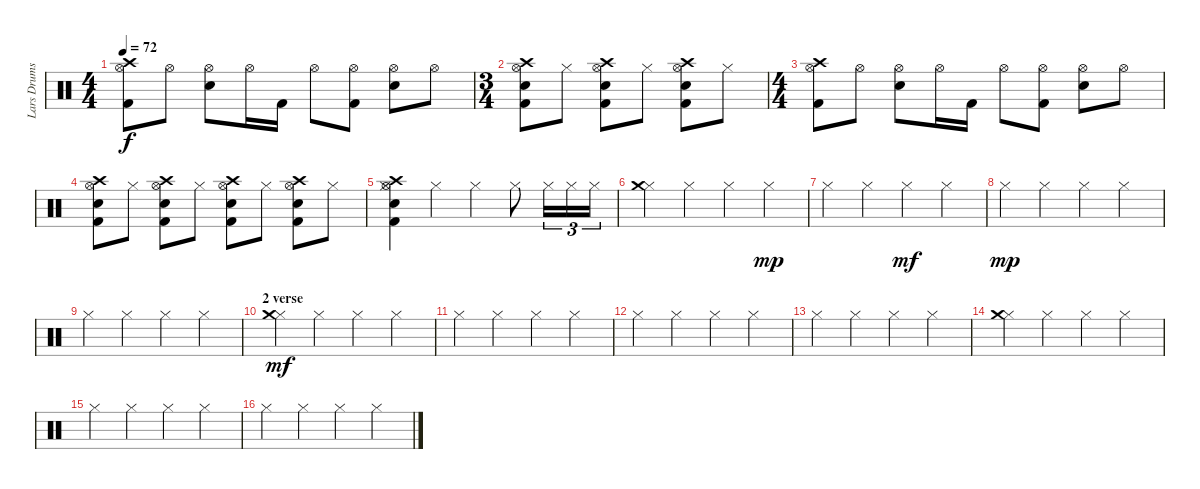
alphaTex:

\track ("Lars Drums" "Lars Drums") {instrument percussion}
\staff {score}
\articulation defaults
\ts (4 4)
\tempo 72
\clef neutral
\ks c
("Kick (hit) 2" "Hi-Hat (open)" "Crash high (hit)").8{dy f} "Hi-Hat (open)".8 ("Snare (hit) 2" "Hi-Hat (open)").8 "Hi-Hat (open)".16 "Kick (hit) 2".16 "Hi-Hat (open)".8 ("Kick (hit) 2" "Hi-Hat (open)").8 ("Snare (hit) 2" "Hi-Hat (open)").8 "Hi-Hat (open)".8 |
\ts (3 4)
("Kick (hit) 2" "Snare (hit) 2" "Hi-Hat (open)" "Crash high (hit)").8 "Hi-Hat (closed)".8 ("Kick (hit) 2" "Snare (hit) 2" "Hi-Hat (open)" "Crash high (hit)").8 "Hi-Hat (closed)".8 ("Kick (hit) 2" "Snare (hit) 2" "Hi-Hat (open)" "Crash high (hit)").8 "Hi-Hat (closed)".8 |
\ts (4 4)
("Kick (hit) 2" "Hi-Hat (open)" "Crash high (hit)").8 "Hi-Hat (open)".8 ("Snare (hit) 2" "Hi-Hat (open)").8 "Hi-Hat (open)".16 "Kick (hit) 2".16 "Hi-Hat (open)".8 ("Kick (hit) 2" "Hi-Hat (open)").8 ("Snare (hit) 2" "Hi-Hat (open)").8 "Hi-Hat (open)".8 |
("Kick (hit) 2" "Snare (hit) 2" "Hi-Hat (open)" "Crash high (hit)").8 "Hi-Hat (closed)".8 ("Kick (hit) 2" "Snare (hit) 2" "Hi-Hat (open)" "Crash high (hit)").8 "Hi-Hat (closed)".8 ("Kick (hit) 2" "Snare (hit) 2" "Hi-Hat (open)" "Crash high (hit)").8 "Hi-Hat (closed)".8 ("Kick (hit) 2" "Snare (hit) 2" "Hi-Hat (open)" "Crash high (hit)").8 "Hi-Hat (closed)".8 |
("Kick (hit) 2" "Snare (hit) 2" "Hi-Hat (closed)" "Hi-Hat (open)" "Crash high (hit)").4 "Hi-Hat (closed)".4 "Hi-Hat (closed)".4 "Hi-Hat (closed)".8 "Hi-Hat (closed)".16{tu (3 2)} "Hi-Hat (closed)".16{tu (3 2)} "Hi-Hat (closed)".16{tu (3 2)} |
("Hi-Hat (closed)" "Crash medium (hit)").4 "Hi-Hat (closed)".4 "Hi-Hat (closed)".4 "Hi-Hat (closed)".4{dy mp} |
"Hi-Hat (closed)".4 "Hi-Hat (closed)".4 "Hi-Hat (closed)".4{dy mf} "Hi-Hat (closed)".4 |
"Hi-Hat (closed)".4{dy mp} "Hi-Hat (closed)".4 "Hi-Hat (closed)".4 "Hi-Hat (closed)".4 |
"Hi-Hat (closed)".4 "Hi-Hat (closed)".4 "Hi-Hat (closed)".4 "Hi-Hat (closed)".4 |
\section ("" "2 verse")
("Hi-Hat (closed)" "Crash medium (hit)").4{dy mf} "Hi-Hat (closed)".4 "Hi-Hat (closed)".4 "Hi-Hat (closed)".4 |
"Hi-Hat (closed)".4 "Hi-Hat (closed)".4 "Hi-Hat (closed)".4 "Hi-Hat (closed)".4 |
"Hi-Hat (closed)".4 "Hi-Hat (closed)".4 "Hi-Hat (closed)".4 "Hi-Hat (closed)".4 |
"Hi-Hat (closed)".4 "Hi-Hat (closed)".4 "Hi-Hat (closed)".4 "Hi-Hat (closed)".4 |
("Hi-Hat (closed)" "Crash medium (hit)").4 "Hi-Hat (closed)".4 "Hi-Hat (closed)".4 "Hi-Hat (closed)".4 |
"Hi-Hat (closed)".4 "Hi-Hat (closed)".4 "Hi-Hat (closed)".4 "Hi-Hat (closed)".4 |
"Hi-Hat (closed)".4 "Hi-Hat (closed)".4 "Hi-Hat (closed)".4 "Hi-Hat (closed)".4
